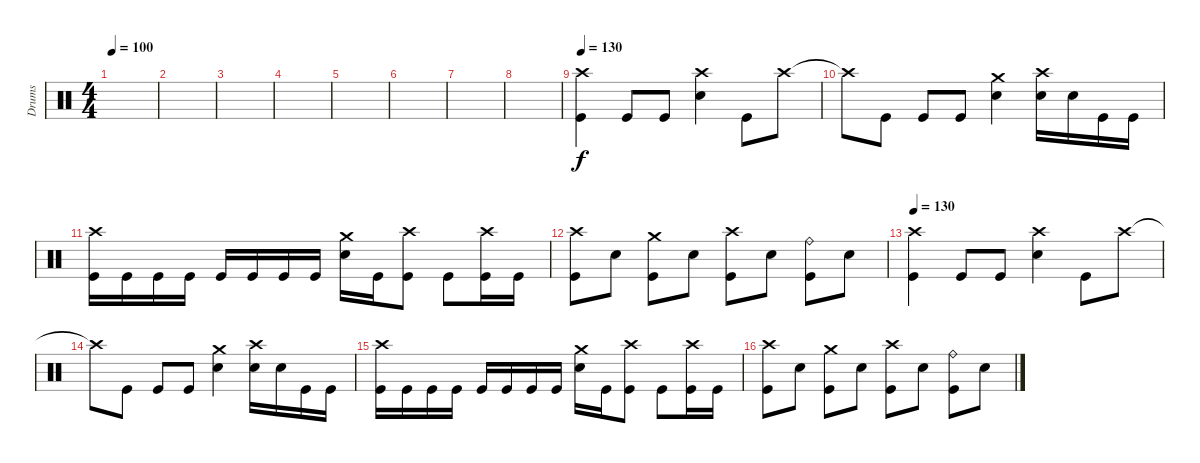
\track ("Drums" "Drums") {instrument percussion}
\staff {score}
\articulation defaults
\ts (4 4)
\tempo 100
\clef neutral
\ks c
|
|
|
|
|
|
|
|
\tempo 140
\tempo 130
("Crash high (hit)" "Kick (hit)").4 "Kick (hit)".8 "Kick (hit)".8 ("Crash high (hit)" "Electric Snare (hit)").4 "Kick (hit)".8 "Crash high (hit)".8 |
"Crash high (hit)"{t}.8 "Kick (hit)".8 "Kick (hit)".8 "Kick (hit)".8 ("Crash medium (hit)" "Electric Snare (hit)").4 ("Crash high (hit)" "Electric Snare (hit)").16 "Electric Snare (hit)".16 "Kick (hit)".16 "Kick (hit)".16 |
("Crash high (hit)" "Kick (hit)").16 "Kick (hit)".16 "Kick (hit)".16 "Kick (hit)".16 "Kick (hit)".16 "Kick (hit)".16 "Kick (hit)".16 "Kick (hit)".16 ("Crash medium (hit)" "Electric Snare (hit)").16 "Kick (hit)".16 ("Crash high (hit)" "Kick (hit)").8 "Kick (hit)".8 ("Crash high (hit)" "Kick (hit)").16 "Kick (hit)".16 |
("Crash high (hit)" "Kick (hit)").8 "Electric Snare (hit)".8 ("Crash medium (hit)" "Kick (hit)").8 "Electric Snare (hit)".8 ("Crash high (hit)" "Kick (hit)").8 "Electric Snare (hit)".8 ("Ride (bell)" "Kick (hit)").8 "Electric Snare (hit)".8 |
\tempo 140
\tempo 130
("Crash high (hit)" "Kick (hit)").4 "Kick (hit)".8 "Kick (hit)".8 ("Crash high (hit)" "Electric Snare (hit)").4 "Kick (hit)".8 "Crash high (hit)".8 |
"Crash high (hit)"{t}.8 "Kick (hit)".8 "Kick (hit)".8 "Kick (hit)".8 ("Crash medium (hit)" "Electric Snare (hit)").4 ("Crash high (hit)" "Electric Snare (hit)").16 "Electric Snare (hit)".16 "Kick (hit)".16 "Kick (hit)".16 |
("Crash high (hit)" "Kick (hit)").16 "Kick (hit)".16 "Kick (hit)".16 "Kick (hit)".16 "Kick (hit)".16 "Kick (hit)".16 "Kick (hit)".16 "Kick (hit)".16 ("Crash medium (hit)" "Electric Snare (hit)").16 "Kick (hit)".16 ("Crash high (hit)" "Kick (hit)").8 "Kick (hit)".8 ("Crash high (hit)" "Kick (hit)").16 "Kick (hit)".16 |
("Crash high (hit)" "Kick (hit)").8 "Electric Snare (hit)".8 ("Crash medium (hit)" "Kick (hit)").8 "Electric Snare (hit)".8 ("Crash high (hit)" "Kick (hit)").8 "Electric Snare (hit)".8 ("Ride (bell)" "Kick (hit)").8 "Electric Snare (hit)".8
